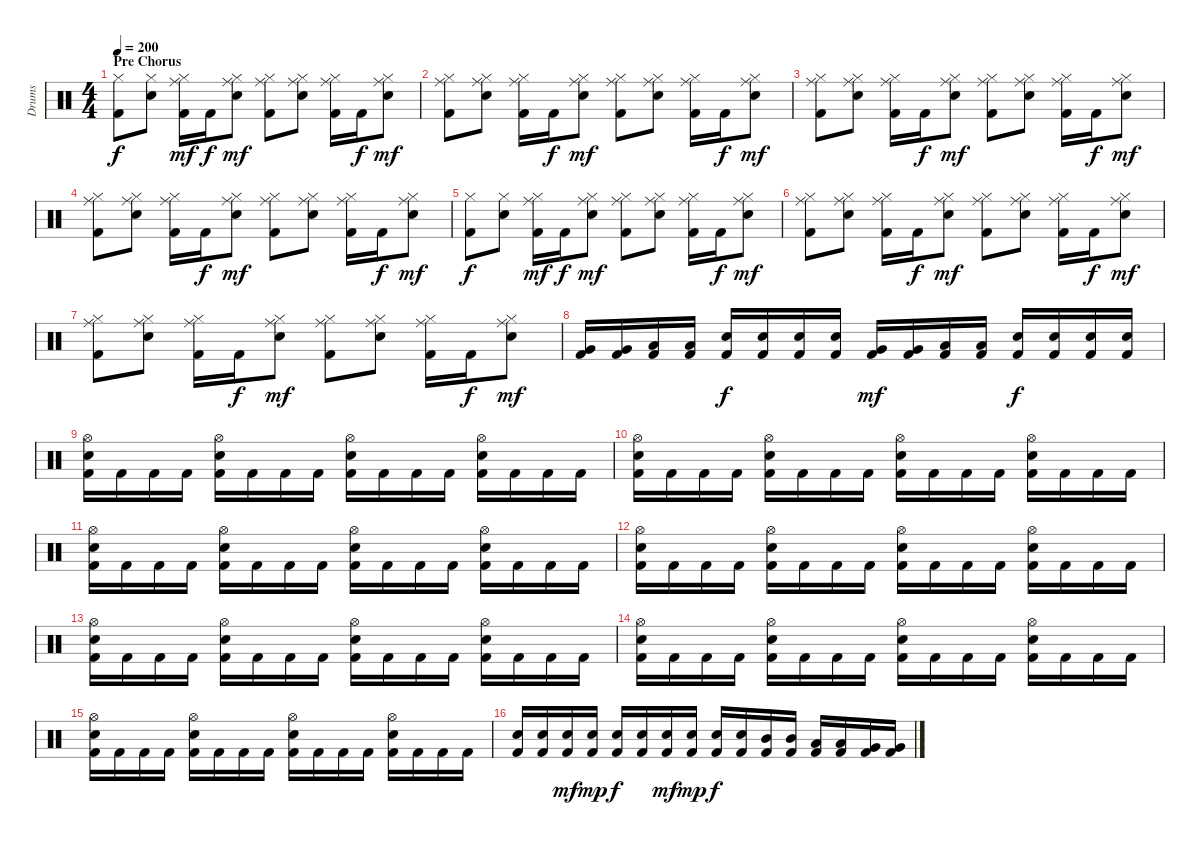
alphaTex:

\track ("Drums" "Drums") {instrument percussion}
\staff {score}
\articulation defaults
\ts (4 4)
\section ("" "Pre Chorus")
\tempo 200
\clef neutral
\ks c
("Hi-Hat (closed)" "Kick (hit) 2").8{dy f} ("Hi-Hat (closed)" "Snare (hit) 2").8 ("Hi-Hat (closed)" "Ride (middle)" "Kick (hit) 2").16{dy mf} "Kick (hit) 2".16{dy f} ("Hi-Hat (closed)" "Ride (middle)" "Snare (hit) 2").8{dy mf} ("Hi-Hat (closed)" "Ride (middle)" "Kick (hit) 2").8 ("Hi-Hat (closed)" "Ride (middle)" "Snare (hit) 2").8 ("Hi-Hat (closed)" "Ride (middle)" "Kick (hit) 2").16 "Kick (hit) 2".16{dy f} ("Hi-Hat (closed)" "Ride (middle)" "Snare (hit) 2").8{dy mf} |
("Hi-Hat (closed)" "Ride (middle)" "Kick (hit) 2").8 ("Hi-Hat (closed)" "Ride (middle)" "Snare (hit) 2").8 ("Hi-Hat (closed)" "Ride (middle)" "Kick (hit) 2").16 "Kick (hit) 2".16{dy f} ("Hi-Hat (closed)" "Ride (middle)" "Snare (hit) 2").8{dy mf} ("Hi-Hat (closed)" "Ride (middle)" "Kick (hit) 2").8 ("Hi-Hat (closed)" "Ride (middle)" "Snare (hit) 2").8 ("Hi-Hat (closed)" "Ride (middle)" "Kick (hit) 2").16 "Kick (hit) 2".16{dy f} ("Hi-Hat (closed)" "Ride (middle)" "Snare (hit) 2").8{dy mf} |
("Hi-Hat (closed)" "Ride (middle)" "Kick (hit) 2").8 ("Hi-Hat (closed)" "Ride (middle)" "Snare (hit) 2").8 ("Hi-Hat (closed)" "Ride (middle)" "Kick (hit) 2").16 "Kick (hit) 2".16{dy f} ("Hi-Hat (closed)" "Ride (middle)" "Snare (hit) 2").8{dy mf} ("Hi-Hat (closed)" "Ride (middle)" "Kick (hit) 2").8 ("Hi-Hat (closed)" "Ride (middle)" "Snare (hit) 2").8 ("Hi-Hat (closed)" "Ride (middle)" "Kick (hit) 2").16 "Kick (hit) 2".16{dy f} ("Hi-Hat (closed)" "Ride (middle)" "Snare (hit) 2").8{dy mf} |
("Hi-Hat (closed)" "Ride (middle)" "Kick (hit) 2").8 ("Hi-Hat (closed)" "Ride (middle)" "Snare (hit) 2").8 ("Hi-Hat (closed)" "Ride (middle)" "Kick (hit) 2").16 "Kick (hit) 2".16{dy f} ("Hi-Hat (closed)" "Ride (middle)" "Snare (hit) 2").8{dy mf} ("Hi-Hat (closed)" "Ride (middle)" "Kick (hit) 2").8 ("Hi-Hat (closed)" "Ride (middle)" "Snare (hit) 2").8 ("Hi-Hat (closed)" "Ride (middle)" "Kick (hit) 2").16 "Kick (hit) 2".16{dy f} ("Hi-Hat (closed)" "Ride (middle)" "Snare (hit) 2").8{dy mf} |
("Hi-Hat (closed)" "Kick (hit) 2").8{dy f} ("Hi-Hat (closed)" "Snare (hit) 2").8 ("Hi-Hat (closed)" "Ride (middle)" "Kick (hit) 2").16{dy mf} "Kick (hit) 2".16{dy f} ("Hi-Hat (closed)" "Ride (middle)" "Snare (hit) 2").8{dy mf} ("Hi-Hat (closed)" "Ride (middle)" "Kick (hit) 2").8 ("Hi-Hat (closed)" "Ride (middle)" "Snare (hit) 2").8 ("Hi-Hat (closed)" "Ride (middle)" "Kick (hit) 2").16 "Kick (hit) 2".16{dy f} ("Hi-Hat (closed)" "Ride (middle)" "Snare (hit) 2").8{dy mf} |
("Hi-Hat (closed)" "Ride (middle)" "Kick (hit) 2").8 ("Hi-Hat (closed)" "Ride (middle)" "Snare (hit) 2").8 ("Hi-Hat (closed)" "Ride (middle)" "Kick (hit) 2").16 "Kick (hit) 2".16{dy f} ("Hi-Hat (closed)" "Ride (middle)" "Snare (hit) 2").8{dy mf} ("Hi-Hat (closed)" "Ride (middle)" "Kick (hit) 2").8 ("Hi-Hat (closed)" "Ride (middle)" "Snare (hit) 2").8 ("Hi-Hat (closed)" "Ride (middle)" "Kick (hit) 2").16 "Kick (hit) 2".16{dy f} ("Hi-Hat (closed)" "Ride (middle)" "Snare (hit) 2").8{dy mf} |
("Hi-Hat (closed)" "Ride (middle)" "Kick (hit) 2").8 ("Hi-Hat (closed)" "Ride (middle)" "Snare (hit) 2").8 ("Hi-Hat (closed)" "Ride (middle)" "Kick (hit) 2").16 "Kick (hit) 2".16{dy f} ("Hi-Hat (closed)" "Ride (middle)" "Snare (hit) 2").8{dy mf} ("Hi-Hat (closed)" "Ride (middle)" "Kick (hit) 2").8 ("Hi-Hat (closed)" "Ride (middle)" "Snare (hit) 2").8 ("Hi-Hat (closed)" "Ride (middle)" "Kick (hit) 2").16 "Kick (hit) 2".16{dy f} ("Hi-Hat (closed)" "Ride (middle)" "Snare (hit) 2").8{dy mf} |
("Very Low Tom (hit)" "Kick (hit) 2").16 ("Very Low Tom (hit)" "Kick (hit) 2").16 ("Low Floor Tom (hit)" "Kick (hit) 2").16 ("Low Floor Tom (hit)" "Kick (hit) 2").16 ("Snare (hit) 2" "Kick (hit) 2").16{dy f} ("Snare (hit) 2" "Kick (hit) 2").16 ("Snare (hit) 2" "Kick (hit) 2").16 ("Snare (hit) 2" "Kick (hit) 2").16 ("Very Low Tom (hit)" "Kick (hit) 2").16{dy mf} ("Very Low Tom (hit)" "Kick (hit) 2").16 ("Low Floor Tom (hit)" "Kick (hit) 2").16 ("Low Floor Tom (hit)" "Kick (hit) 2").16 ("Snare (hit) 2" "Kick (hit) 2").16{dy f} ("Snare (hit) 2" "Kick (hit) 2").16 ("Snare (hit) 2" "Kick (hit) 2").16 ("Snare (hit) 2" "Kick (hit) 2").16 |
("Hi-Hat (open)" "Snare (hit) 2" "Kick (hit) 2").16 "Kick (hit) 2".16 "Kick (hit) 2".16 "Kick (hit) 2".16 ("Hi-Hat (open)" "Snare (hit) 2" "Kick (hit) 2").16 "Kick (hit) 2".16 "Kick (hit) 2".16 "Kick (hit) 2".16 ("Hi-Hat (open)" "Snare (hit) 2" "Kick (hit) 2").16 "Kick (hit) 2".16 "Kick (hit) 2".16 "Kick (hit) 2".16 ("Hi-Hat (open)" "Snare (hit) 2" "Kick (hit) 2").16 "Kick (hit) 2".16 "Kick (hit) 2".16 "Kick (hit) 2".16 |
("Hi-Hat (open)" "Snare (hit) 2" "Kick (hit) 2").16 "Kick (hit) 2".16 "Kick (hit) 2".16 "Kick (hit) 2".16 ("Hi-Hat (open)" "Snare (hit) 2" "Kick (hit) 2").16 "Kick (hit) 2".16 "Kick (hit) 2".16 "Kick (hit) 2".16 ("Hi-Hat (open)" "Snare (hit) 2" "Kick (hit) 2").16 "Kick (hit) 2".16 "Kick (hit) 2".16 "Kick (hit) 2".16 ("Hi-Hat (open)" "Snare (hit) 2" "Kick (hit) 2").16 "Kick (hit) 2".16 "Kick (hit) 2".16 "Kick (hit) 2".16 |
("Hi-Hat (open)" "Snare (hit) 2" "Kick (hit) 2").16 "Kick (hit) 2".16 "Kick (hit) 2".16 "Kick (hit) 2".16 ("Hi-Hat (open)" "Snare (hit) 2" "Kick (hit) 2").16 "Kick (hit) 2".16 "Kick (hit) 2".16 "Kick (hit) 2".16 ("Hi-Hat (open)" "Snare (hit) 2" "Kick (hit) 2").16 "Kick (hit) 2".16 "Kick (hit) 2".16 "Kick (hit) 2".16 ("Hi-Hat (open)" "Snare (hit) 2" "Kick (hit) 2").16 "Kick (hit) 2".16 "Kick (hit) 2".16 "Kick (hit) 2".16 |
("Hi-Hat (open)" "Snare (hit) 2" "Kick (hit) 2").16 "Kick (hit) 2".16 "Kick (hit) 2".16 "Kick (hit) 2".16 ("Hi-Hat (open)" "Snare (hit) 2" "Kick (hit) 2").16 "Kick (hit) 2".16 "Kick (hit) 2".16 "Kick (hit) 2".16 ("Hi-Hat (open)" "Snare (hit) 2" "Kick (hit) 2").16 "Kick (hit) 2".16 "Kick (hit) 2".16 "Kick (hit) 2".16 ("Hi-Hat (open)" "Snare (hit) 2" "Kick (hit) 2").16 "Kick (hit) 2".16 "Kick (hit) 2".16 "Kick (hit) 2".16 |
("Hi-Hat (open)" "Snare (hit) 2" "Kick (hit) 2").16 "Kick (hit) 2".16 "Kick (hit) 2".16 "Kick (hit) 2".16 ("Hi-Hat (open)" "Snare (hit) 2" "Kick (hit) 2").16 "Kick (hit) 2".16 "Kick (hit) 2".16 "Kick (hit) 2".16 ("Hi-Hat (open)" "Snare (hit) 2" "Kick (hit) 2").16 "Kick (hit) 2".16 "Kick (hit) 2".16 "Kick (hit) 2".16 ("Hi-Hat (open)" "Snare (hit) 2" "Kick (hit) 2").16 "Kick (hit) 2".16 "Kick (hit) 2".16 "Kick (hit) 2".16 |
("Hi-Hat (open)" "Snare (hit) 2" "Kick (hit) 2").16 "Kick (hit) 2".16 "Kick (hit) 2".16 "Kick (hit) 2".16 ("Hi-Hat (open)" "Snare (hit) 2" "Kick (hit) 2").16 "Kick (hit) 2".16 "Kick (hit) 2".16 "Kick (hit) 2".16 ("Hi-Hat (open)" "Snare (hit) 2" "Kick (hit) 2").16 "Kick (hit) 2".16 "Kick (hit) 2".16 "Kick (hit) 2".16 ("Hi-Hat (open)" "Snare (hit) 2" "Kick (hit) 2").16 "Kick (hit) 2".16 "Kick (hit) 2".16 "Kick (hit) 2".16 |
("Hi-Hat (open)" "Snare (hit) 2" "Kick (hit) 2").16 "Kick (hit) 2".16 "Kick (hit) 2".16 "Kick (hit) 2".16 ("Hi-Hat (open)" "Snare (hit) 2" "Kick (hit) 2").16 "Kick (hit) 2".16 "Kick (hit) 2".16 "Kick (hit) 2".16 ("Hi-Hat (open)" "Snare (hit) 2" "Kick (hit) 2").16 "Kick (hit) 2".16 "Kick (hit) 2".16 "Kick (hit) 2".16 ("Hi-Hat (open)" "Snare (hit) 2" "Kick (hit) 2").16 "Kick (hit) 2".16 "Kick (hit) 2".16 "Kick (hit) 2".16 |
("Snare (hit) 2" "Kick (hit) 2").16 ("Snare (hit) 2" "Kick (hit) 2").16 ("Snare (hit) 2" "Kick (hit) 2").16{dy mf} ("Snare (hit) 2" "Kick (hit) 2").16{dy mp} ("Snare (hit) 2" "Kick (hit) 2").16{dy f} ("Snare (hit) 2" "Kick (hit) 2").16 ("Snare (hit) 2" "Kick (hit) 2").16{dy mf} ("Snare (hit) 2" "Kick (hit) 2").16{dy mp} ("Snare (hit) 2" "Kick (hit) 2").16{dy f} ("Snare (hit) 2" "Kick (hit) 2").16 ("Mid Tom (hit)" "Kick (hit) 2").16 ("Mid Tom (hit)" "Kick (hit) 2").16 ("Low Tom (hit)" "Kick (hit) 2").16 ("Low Tom (hit)" "Kick (hit) 2").16 ("Very Low Tom (hit)" "Kick (hit) 2").16 ("Very Low Tom (hit)" "Kick (hit) 2").16
